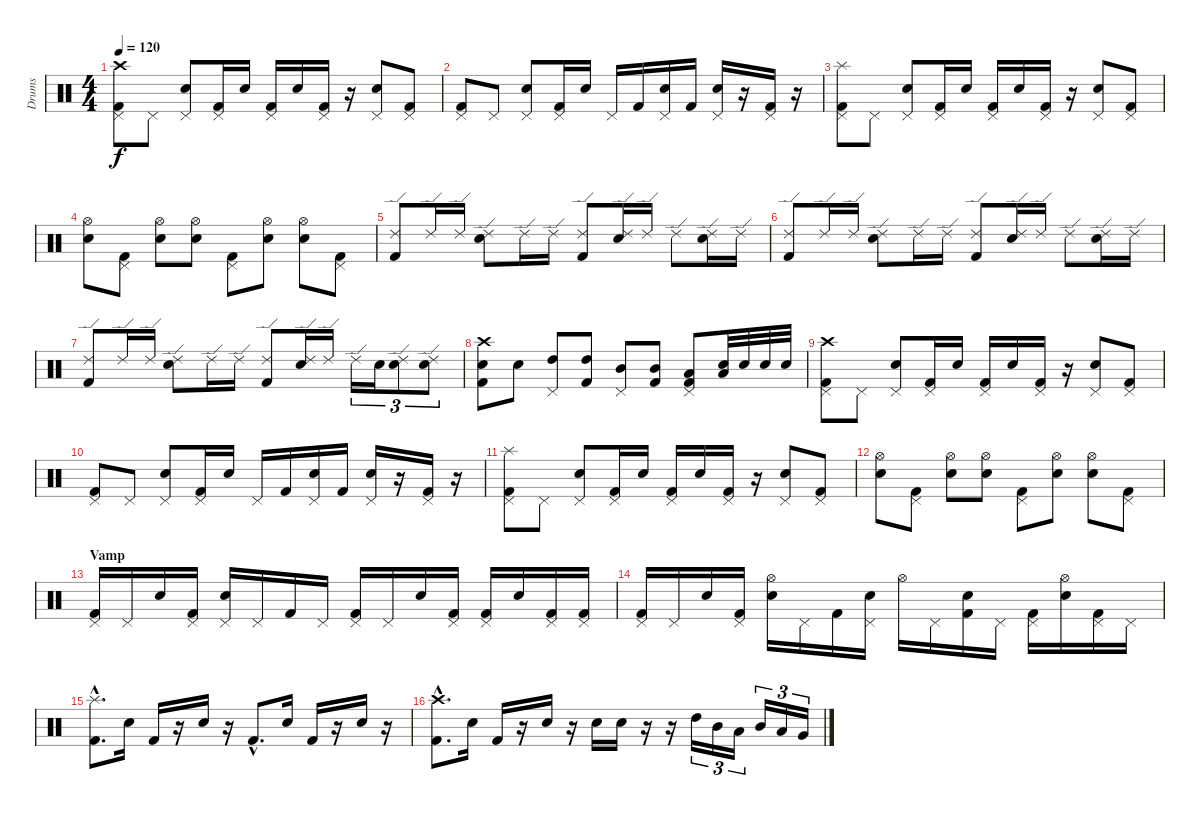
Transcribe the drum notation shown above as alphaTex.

\track ("Drums" "Drums") {instrument percussion}
\staff {score}
\articulation defaults
\ts (4 4)
\tempo 120
\clef neutral
\ks c
("Crash high (hit)" "Pedal Hi-Hat (hit)" "Kick (hit) 2").8{dy f} "Pedal Hi-Hat (hit)".8 ("Pedal Hi-Hat (hit)" "Electric Snare (hit)").8 ("Pedal Hi-Hat (hit)" "Kick (hit) 2").16 "Electric Snare (hit)".16 ("Pedal Hi-Hat (hit)" "Kick (hit) 2").16 "Electric Snare (hit)".16 ("Pedal Hi-Hat (hit)" "Kick (hit) 2").16 r.16 ("Pedal Hi-Hat (hit)" "Electric Snare (hit)").8 ("Pedal Hi-Hat (hit)" "Kick (hit) 2").8 |
("Pedal Hi-Hat (hit)" "Kick (hit) 2").8 "Pedal Hi-Hat (hit)".8 ("Pedal Hi-Hat (hit)" "Electric Snare (hit)").8 ("Pedal Hi-Hat (hit)" "Kick (hit) 2").16 "Electric Snare (hit)".16 "Pedal Hi-Hat (hit)".16 "Kick (hit) 2".16 ("Pedal Hi-Hat (hit)" "Electric Snare (hit)").16 "Kick (hit) 2".16 ("Pedal Hi-Hat (hit)" "Electric Snare (hit)").16 r.16 ("Pedal Hi-Hat (hit)" "Kick (hit) 2").16 r.16 |
("Splash (hit)" "Pedal Hi-Hat (hit)" "Kick (hit) 2").8 "Pedal Hi-Hat (hit)".8 ("Pedal Hi-Hat (hit)" "Electric Snare (hit)").8 ("Pedal Hi-Hat (hit)" "Kick (hit) 2").16 "Electric Snare (hit)".16 ("Pedal Hi-Hat (hit)" "Kick (hit) 2").16 "Electric Snare (hit)".16 ("Pedal Hi-Hat (hit)" "Kick (hit) 2").16 r.16 ("Pedal Hi-Hat (hit)" "Electric Snare (hit)").8 ("Pedal Hi-Hat (hit)" "Kick (hit) 2").8 |
("Hi-Hat (open)" "Electric Snare (hit)").8 ("Pedal Hi-Hat (hit)" "Kick (hit) 2").8 ("Hi-Hat (open)" "Electric Snare (hit)").8 ("Hi-Hat (open)" "Electric Snare (hit)").8 ("Pedal Hi-Hat (hit)" "Kick (hit) 2").8 ("Hi-Hat (open)" "Electric Snare (hit)").8 ("Hi-Hat (open)" "Electric Snare (hit)").8 ("Pedal Hi-Hat (hit)" "Kick (hit) 2").8 |
("Ride (edge) 2" "Kick (hit) 2").8 "Ride (edge) 2".16 "Ride (edge) 2".16 ("Ride (edge) 2" "Electric Snare (hit)").8 "Ride (edge) 2".16 "Ride (edge) 2".16 ("Ride (edge) 2" "Kick (hit) 2").8 ("Ride (edge) 2" "Electric Snare (hit)").16 "Ride (edge) 2".16 "Ride (edge) 2".8 ("Ride (edge) 2" "Electric Snare (hit)").16 "Ride (edge) 2".16 |
("Ride (edge) 2" "Kick (hit) 2").8 "Ride (edge) 2".16 "Ride (edge) 2".16 ("Ride (edge) 2" "Electric Snare (hit)").8 "Ride (edge) 2".16 "Ride (edge) 2".16 ("Ride (edge) 2" "Kick (hit) 2").8 ("Ride (edge) 2" "Electric Snare (hit)").16 "Ride (edge) 2".16 "Ride (edge) 2".8 ("Ride (edge) 2" "Electric Snare (hit)").16 "Ride (edge) 2".16 |
("Ride (edge) 2" "Kick (hit) 2").8 "Ride (edge) 2".16 "Ride (edge) 2".16 ("Ride (edge) 2" "Electric Snare (hit)").8 "Ride (edge) 2".16 "Ride (edge) 2".16 ("Ride (edge) 2" "Kick (hit) 2").8 ("Ride (edge) 2" "Electric Snare (hit)").16 "Ride (edge) 2".16 "Ride (edge) 2".16{tu (3 2)} "Electric Snare (hit)".16{tu (3 2)} ("Ride (edge) 2" "Electric Snare (hit)").8{tu (3 2)} ("Ride (edge) 2" "Electric Snare (hit)").8{tu (3 2)} |
("Crash high (hit)" "Electric Snare (hit)" "Kick (hit) 2").8 "Electric Snare (hit)".8 ("Pedal Hi-Hat (hit)" "High Tom (hit)").8 ("High Tom (hit)" "Kick (hit) 2").8 ("Pedal Hi-Hat (hit)" "Mid Tom (hit)").8 ("Mid Tom (hit)" "Kick (hit) 2").8 ("Pedal Hi-Hat (hit)" "Low Tom (hit)" "Kick (hit) 2").8 ("Electric Snare (hit)" "Low Tom (hit)").32 "Electric Snare (hit)".32 "Electric Snare (hit)".32 "Electric Snare (hit)".32 |
("Crash high (hit)" "Pedal Hi-Hat (hit)" "Kick (hit) 2").8 "Pedal Hi-Hat (hit)".8 ("Pedal Hi-Hat (hit)" "Electric Snare (hit)").8 ("Pedal Hi-Hat (hit)" "Kick (hit) 2").16 "Electric Snare (hit)".16 ("Pedal Hi-Hat (hit)" "Kick (hit) 2").16 "Electric Snare (hit)".16 ("Pedal Hi-Hat (hit)" "Kick (hit) 2").16 r.16 ("Pedal Hi-Hat (hit)" "Electric Snare (hit)").8 ("Pedal Hi-Hat (hit)" "Kick (hit) 2").8 |
("Pedal Hi-Hat (hit)" "Kick (hit) 2").8 "Pedal Hi-Hat (hit)".8 ("Pedal Hi-Hat (hit)" "Electric Snare (hit)").8 ("Pedal Hi-Hat (hit)" "Kick (hit) 2").16 "Electric Snare (hit)".16 "Pedal Hi-Hat (hit)".16 "Kick (hit) 2".16 ("Pedal Hi-Hat (hit)" "Electric Snare (hit)").16 "Kick (hit) 2".16 ("Pedal Hi-Hat (hit)" "Electric Snare (hit)").16 r.16 ("Pedal Hi-Hat (hit)" "Kick (hit) 2").16 r.16 |
("Splash (hit)" "Pedal Hi-Hat (hit)" "Kick (hit) 2").8 "Pedal Hi-Hat (hit)".8 ("Pedal Hi-Hat (hit)" "Electric Snare (hit)").8 ("Pedal Hi-Hat (hit)" "Kick (hit) 2").16 "Electric Snare (hit)".16 ("Pedal Hi-Hat (hit)" "Kick (hit) 2").16 "Electric Snare (hit)".16 ("Pedal Hi-Hat (hit)" "Kick (hit) 2").16 r.16 ("Pedal Hi-Hat (hit)" "Electric Snare (hit)").8 ("Pedal Hi-Hat (hit)" "Kick (hit) 2").8 |
("Hi-Hat (open)" "Electric Snare (hit)").8 ("Pedal Hi-Hat (hit)" "Kick (hit) 2").8 ("Hi-Hat (open)" "Electric Snare (hit)").8 ("Hi-Hat (open)" "Electric Snare (hit)").8 ("Pedal Hi-Hat (hit)" "Kick (hit) 2").8 ("Hi-Hat (open)" "Electric Snare (hit)").8 ("Hi-Hat (open)" "Electric Snare (hit)").8 ("Pedal Hi-Hat (hit)" "Kick (hit) 2").8 |
\section ("" "Vamp")
("Pedal Hi-Hat (hit)" "Kick (hit) 2").16 "Pedal Hi-Hat (hit)".16 "Electric Snare (hit)".16 ("Pedal Hi-Hat (hit)" "Kick (hit) 2").16 ("Pedal Hi-Hat (hit)" "Electric Snare (hit)").16 "Pedal Hi-Hat (hit)".16 "Kick (hit) 2".16 "Pedal Hi-Hat (hit)".16 ("Pedal Hi-Hat (hit)" "Kick (hit) 2").16 "Pedal Hi-Hat (hit)".16 "Electric Snare (hit)".16 ("Pedal Hi-Hat (hit)" "Kick (hit) 2").16 ("Pedal Hi-Hat (hit)" "Kick (hit) 2").16 "Electric Snare (hit)".16 ("Pedal Hi-Hat (hit)" "Kick (hit) 2").16 ("Pedal Hi-Hat (hit)" "Kick (hit) 2").16 |
("Pedal Hi-Hat (hit)" "Kick (hit) 2").16 "Pedal Hi-Hat (hit)".16 "Electric Snare (hit)".16 ("Pedal Hi-Hat (hit)" "Kick (hit) 2").16 ("Hi-Hat (open)" "Electric Snare (hit)").16 "Pedal Hi-Hat (hit)".16 "Kick (hit) 2".16 ("Pedal Hi-Hat (hit)" "Electric Snare (hit)").16 "Hi-Hat (open)".16 "Pedal Hi-Hat (hit)".16 ("Electric Snare (hit)" "Kick (hit) 2").16 "Pedal Hi-Hat (hit)".16 ("Pedal Hi-Hat (hit)" "Kick (hit) 2").16 ("Hi-Hat (open)" "Electric Snare (hit)").16 ("Pedal Hi-Hat (hit)" "Kick (hit) 2").16 "Pedal Hi-Hat (hit)".16 |
("Splash (hit)"{hac} "Kick (hit) 2"{hac}).8{d} "Electric Snare (hit)".16 "Kick (hit) 2".16 r.16 "Electric Snare (hit)".16 r.16 "Kick (hit) 2"{hac}.8{d} "Electric Snare (hit)".16 "Kick (hit) 2".16 r.16 "Electric Snare (hit)".16 r.16 |
("Crash high (hit)"{hac} "Kick (hit) 2"{hac}).8{d} "Electric Snare (hit)".16 "Kick (hit) 2".16 r.16 "Electric Snare (hit)".16 r.16 "Electric Snare (hit)".16 "Electric Snare (hit)".16 r.16 r.16 "High Tom (hit)".16{tu (3 2)} "Mid Tom (hit)".16{tu (3 2)} "Low Tom (hit)".16{tu (3 2)} "Mid Tom (hit)".16{tu (3 2)} "Low Tom (hit)".16{tu (3 2)} "Very Low Tom (hit)".16{tu (3 2)}
